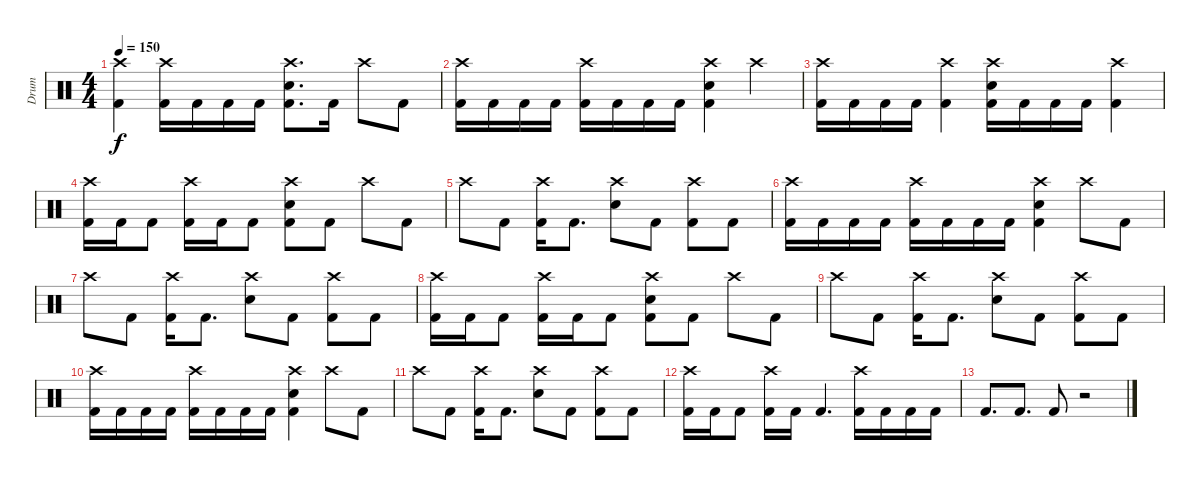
\track ("Drum" "Drum") {instrument percussion}
\staff {score}
\articulation defaults
\ts (4 4)
\tempo 150
\clef neutral
\ks c
("Crash high (hit)" "Kick (hit) 2").4{dy f} ("Crash high (hit)" "Kick (hit) 2").16 "Kick (hit) 2".16 "Kick (hit) 2".16 "Kick (hit) 2".16 ("Crash high (hit)" "Electric Snare (hit)" "Kick (hit) 2").8{d} "Kick (hit) 2".16 "Crash high (hit)".8 "Kick (hit) 2".8 |
("Crash high (hit)" "Kick (hit) 2").16 "Kick (hit) 2".16 "Kick (hit) 2".16 "Kick (hit) 2".16 ("Crash high (hit)" "Kick (hit) 2").16 "Kick (hit) 2".16 "Kick (hit) 2".16 "Kick (hit) 2".16 ("Crash high (hit)" "Electric Snare (hit)" "Kick (hit) 2").4 "Crash high (hit)".4 |
("Crash high (hit)" "Kick (hit) 2").16 "Kick (hit) 2".16 "Kick (hit) 2".16 "Kick (hit) 2".16 ("Crash high (hit)" "Kick (hit) 2").4 ("Crash high (hit)" "Electric Snare (hit)" "Kick (hit) 2").16 "Kick (hit) 2".16 "Kick (hit) 2".16 "Kick (hit) 2".16 ("Crash high (hit)" "Kick (hit) 2").4 |
("Crash high (hit)" "Kick (hit) 2").16 "Kick (hit) 2".16 "Kick (hit) 2".8 ("Crash high (hit)" "Kick (hit) 2").16 "Kick (hit) 2".16 "Kick (hit) 2".8 ("Crash high (hit)" "Electric Snare (hit)" "Kick (hit) 2").8 "Kick (hit) 2".8 "Crash high (hit)".8 "Kick (hit) 2".8 |
"Crash high (hit)".8 "Kick (hit) 2".8 ("Crash high (hit)" "Kick (hit) 2").16 "Kick (hit) 2".8{d} ("Crash high (hit)" "Electric Snare (hit)").8 "Kick (hit) 2".8 ("Crash high (hit)" "Kick (hit) 2").8 "Kick (hit) 2".8 |
("Crash high (hit)" "Kick (hit) 2").16 "Kick (hit) 2".16 "Kick (hit) 2".16 "Kick (hit) 2".16 ("Crash high (hit)" "Kick (hit) 2").16 "Kick (hit) 2".16 "Kick (hit) 2".16 "Kick (hit) 2".16 ("Crash high (hit)" "Electric Snare (hit)" "Kick (hit) 2").4 "Crash high (hit)".8 "Kick (hit) 2".8 |
"Crash high (hit)".8 "Kick (hit) 2".8 ("Crash high (hit)" "Kick (hit) 2").16 "Kick (hit) 2".8{d} ("Crash high (hit)" "Electric Snare (hit)").8 "Kick (hit) 2".8 ("Crash high (hit)" "Kick (hit) 2").8 "Kick (hit) 2".8 |
("Crash high (hit)" "Kick (hit) 2").16 "Kick (hit) 2".16 "Kick (hit) 2".8 ("Crash high (hit)" "Kick (hit) 2").16 "Kick (hit) 2".16 "Kick (hit) 2".8 ("Crash high (hit)" "Electric Snare (hit)" "Kick (hit) 2").8 "Kick (hit) 2".8 "Crash high (hit)".8 "Kick (hit) 2".8 |
"Crash high (hit)".8 "Kick (hit) 2".8 ("Crash high (hit)" "Kick (hit) 2").16 "Kick (hit) 2".8{d} ("Crash high (hit)" "Electric Snare (hit)").8 "Kick (hit) 2".8 ("Crash high (hit)" "Kick (hit) 2").8 "Kick (hit) 2".8 |
("Crash high (hit)" "Kick (hit) 2").16 "Kick (hit) 2".16 "Kick (hit) 2".16 "Kick (hit) 2".16 ("Crash high (hit)" "Kick (hit) 2").16 "Kick (hit) 2".16 "Kick (hit) 2".16 "Kick (hit) 2".16 ("Crash high (hit)" "Electric Snare (hit)" "Kick (hit) 2").4 "Crash high (hit)".8 "Kick (hit) 2".8 |
"Crash high (hit)".8 "Kick (hit) 2".8 ("Crash high (hit)" "Kick (hit) 2").16 "Kick (hit) 2".8{d} ("Crash high (hit)" "Electric Snare (hit)").8 "Kick (hit) 2".8 ("Crash high (hit)" "Kick (hit) 2").8 "Kick (hit) 2".8 |
("Crash high (hit)" "Kick (hit) 2").16 "Kick (hit) 2".16 "Kick (hit) 2".8 ("Crash high (hit)" "Kick (hit) 2").16 "Kick (hit) 2".16 "Kick (hit) 2".4{d} ("Crash high (hit)" "Kick (hit) 2").16 "Kick (hit) 2".16 "Kick (hit) 2".16 "Kick (hit) 2".16 |
"Kick (hit) 2".8{d} "Kick (hit) 2".8{d} "Kick (hit) 2".8 r.2
